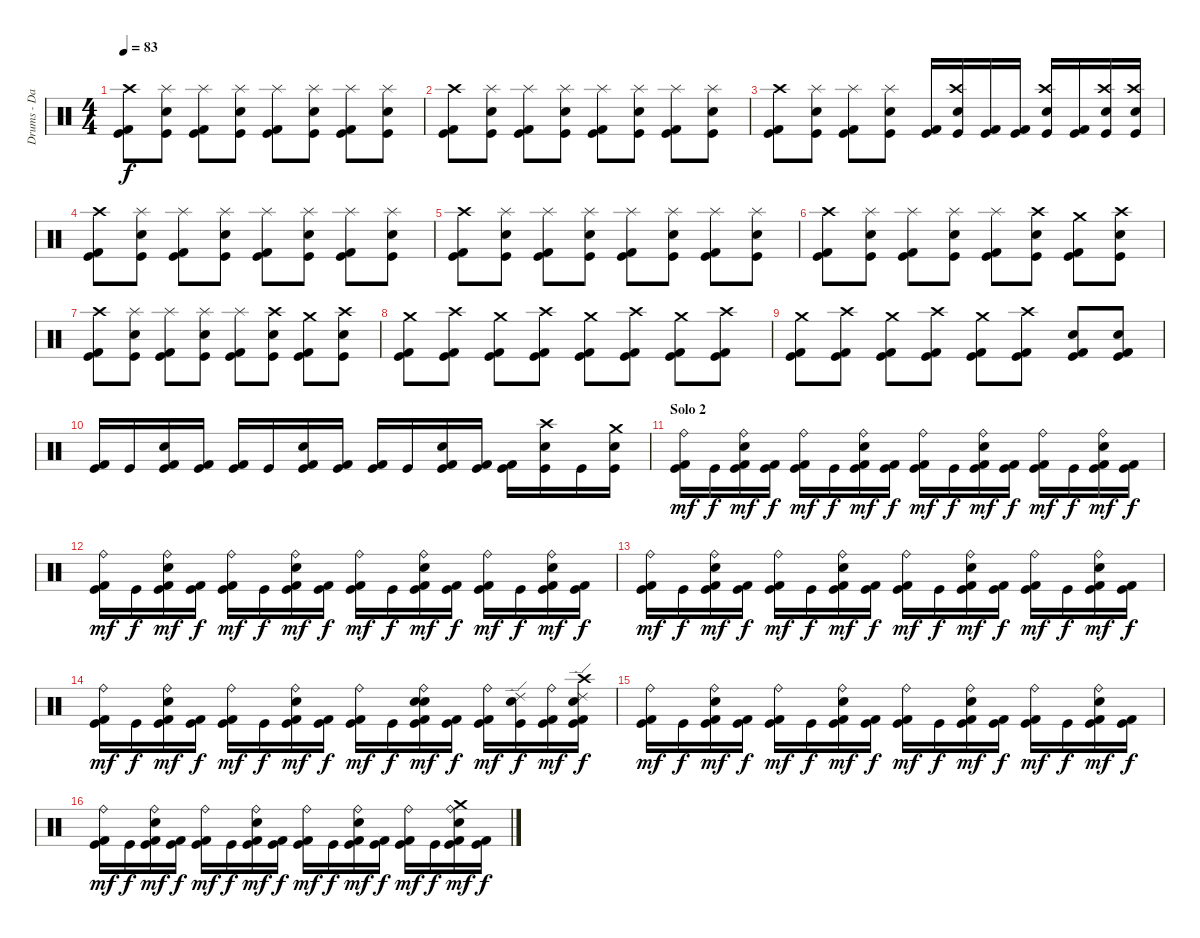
\track ("Drums - Daniel Zimmermann" "Drums - Da") {instrument percussion}
\staff {score}
\articulation defaults
\ts (4 4)
\tempo 83
\clef neutral
\ks c
("Kick (hit)" "Kick (hit) 2" "Crash high (hit)").8{dy f} ("Kick (hit)" "Electric Snare (hit)" "Splash (hit)").8 ("Kick (hit)" "Kick (hit) 2" "Splash (hit)").8 ("Kick (hit)" "Electric Snare (hit)" "Splash (hit)").8 ("Kick (hit)" "Kick (hit) 2" "Splash (hit)").8 ("Kick (hit)" "Electric Snare (hit)" "Splash (hit)").8 ("Kick (hit)" "Kick (hit) 2" "Splash (hit)").8 ("Kick (hit)" "Electric Snare (hit)" "Splash (hit)").8 |
("Kick (hit)" "Kick (hit) 2" "Crash high (hit)").8 ("Kick (hit)" "Electric Snare (hit)" "Splash (hit)").8 ("Kick (hit)" "Kick (hit) 2" "Splash (hit)").8 ("Kick (hit)" "Electric Snare (hit)" "Splash (hit)").8 ("Kick (hit)" "Kick (hit) 2" "Splash (hit)").8 ("Kick (hit)" "Electric Snare (hit)" "Splash (hit)").8 ("Kick (hit)" "Kick (hit) 2" "Splash (hit)").8 ("Kick (hit)" "Electric Snare (hit)" "Splash (hit)").8 |
("Kick (hit)" "Kick (hit) 2" "Crash high (hit)").8 ("Kick (hit)" "Electric Snare (hit)" "Splash (hit)").8 ("Kick (hit)" "Kick (hit) 2" "Splash (hit)").8 ("Kick (hit)" "Electric Snare (hit)" "Splash (hit)").8 ("Kick (hit)" "Kick (hit) 2").16 ("Kick (hit)" "Electric Snare (hit)" "Crash high (hit)").16 ("Kick (hit)" "Kick (hit) 2").16 ("Kick (hit)" "Kick (hit) 2").16 ("Kick (hit)" "Electric Snare (hit)" "Crash high (hit)").16 ("Kick (hit)" "Kick (hit) 2").16 ("Kick (hit)" "Electric Snare (hit)" "Crash high (hit)").16 ("Kick (hit)" "Electric Snare (hit)" "Crash high (hit)").16 |
("Kick (hit)" "Kick (hit) 2" "Crash high (hit)").8 ("Kick (hit)" "Electric Snare (hit)" "Splash (hit)").8 ("Kick (hit)" "Kick (hit) 2" "Splash (hit)").8 ("Kick (hit)" "Electric Snare (hit)" "Splash (hit)").8 ("Kick (hit)" "Kick (hit) 2" "Splash (hit)").8 ("Kick (hit)" "Electric Snare (hit)" "Splash (hit)").8 ("Kick (hit)" "Kick (hit) 2" "Splash (hit)").8 ("Kick (hit)" "Electric Snare (hit)" "Splash (hit)").8 |
("Kick (hit)" "Kick (hit) 2" "Crash high (hit)").8 ("Kick (hit)" "Electric Snare (hit)" "Splash (hit)").8 ("Kick (hit)" "Kick (hit) 2" "Splash (hit)").8 ("Kick (hit)" "Electric Snare (hit)" "Splash (hit)").8 ("Kick (hit)" "Kick (hit) 2" "Splash (hit)").8 ("Kick (hit)" "Electric Snare (hit)" "Splash (hit)").8 ("Kick (hit)" "Kick (hit) 2" "Splash (hit)").8 ("Kick (hit)" "Electric Snare (hit)" "Splash (hit)").8 |
("Kick (hit)" "Kick (hit) 2" "Crash high (hit)").8 ("Kick (hit)" "Electric Snare (hit)" "Splash (hit)").8 ("Kick (hit)" "Kick (hit) 2" "Splash (hit)").8 ("Kick (hit)" "Electric Snare (hit)" "Splash (hit)").8 ("Kick (hit)" "Kick (hit) 2" "Splash (hit)").8 ("Kick (hit)" "Electric Snare (hit)" "Crash high (hit)").8 ("Kick (hit)" "Kick (hit) 2" "Crash medium (hit)").8 ("Kick (hit)" "Electric Snare (hit)" "Crash high (hit)").8 |
("Kick (hit)" "Kick (hit) 2" "Crash high (hit)").8 ("Kick (hit)" "Electric Snare (hit)" "Splash (hit)").8 ("Kick (hit)" "Kick (hit) 2" "Splash (hit)").8 ("Kick (hit)" "Electric Snare (hit)" "Splash (hit)").8 ("Kick (hit)" "Kick (hit) 2" "Splash (hit)").8 ("Kick (hit)" "Electric Snare (hit)" "Crash high (hit)").8 ("Kick (hit)" "Kick (hit) 2" "Crash medium (hit)").8 ("Kick (hit)" "Electric Snare (hit)" "Crash high (hit)").8 |
("Kick (hit)" "Kick (hit) 2" "Crash medium (hit)").8 ("Kick (hit)" "Kick (hit) 2" "Crash high (hit)").8 ("Kick (hit)" "Kick (hit) 2" "Crash medium (hit)").8 ("Kick (hit)" "Kick (hit) 2" "Crash high (hit)").8 ("Kick (hit)" "Kick (hit) 2" "Crash medium (hit)").8 ("Kick (hit)" "Kick (hit) 2" "Crash high (hit)").8 ("Kick (hit)" "Kick (hit) 2" "Crash medium (hit)").8 ("Kick (hit)" "Kick (hit) 2" "Crash high (hit)").8 |
("Kick (hit)" "Kick (hit) 2" "Crash medium (hit)").8 ("Kick (hit)" "Kick (hit) 2" "Crash high (hit)").8 ("Kick (hit)" "Kick (hit) 2" "Crash medium (hit)").8 ("Kick (hit)" "Kick (hit) 2" "Crash high (hit)").8 ("Kick (hit)" "Kick (hit) 2" "Crash medium (hit)").8 ("Kick (hit)" "Kick (hit) 2" "Crash high (hit)").8 ("Kick (hit)" "Kick (hit) 2" "Electric Snare (hit)").8 ("Kick (hit)" "Kick (hit) 2" "Electric Snare (hit)").8 |
("Kick (hit)" "Kick (hit) 2").16 "Kick (hit)".16 ("Kick (hit)" "Kick (hit) 2" "Electric Snare (hit)").16 ("Kick (hit)" "Kick (hit) 2").16 ("Kick (hit)" "Kick (hit) 2").16 "Kick (hit)".16 ("Kick (hit)" "Kick (hit) 2" "Electric Snare (hit)").16 ("Kick (hit)" "Kick (hit) 2").16 ("Kick (hit)" "Kick (hit) 2").16 "Kick (hit)".16 ("Kick (hit)" "Kick (hit) 2" "Electric Snare (hit)").16 ("Kick (hit)" "Kick (hit) 2").16 ("Kick (hit)" "Kick (hit) 2").16 ("Kick (hit)" "Electric Snare (hit)" "Crash high (hit)").16 "Kick (hit)".16 ("Kick (hit)" "Electric Snare (hit)" "Crash medium (hit)").16 |
\section ("" "Solo 2")
("Kick (hit)" "Kick (hit) 2" "Ride (bell)").16{dy mf} "Kick (hit)".16{dy f} ("Kick (hit)" "Kick (hit) 2" "Electric Snare (hit)" "Ride (bell)").16{dy mf} ("Kick (hit)" "Kick (hit) 2").16{dy f} ("Kick (hit)" "Kick (hit) 2" "Ride (bell)").16{dy mf} "Kick (hit)".16{dy f} ("Kick (hit)" "Kick (hit) 2" "Electric Snare (hit)" "Ride (bell)").16{dy mf} ("Kick (hit)" "Kick (hit) 2").16{dy f} ("Kick (hit)" "Kick (hit) 2" "Ride (bell)").16{dy mf} "Kick (hit)".16{dy f} ("Kick (hit)" "Kick (hit) 2" "Electric Snare (hit)" "Ride (bell)").16{dy mf} ("Kick (hit)" "Kick (hit) 2").16{dy f} ("Kick (hit)" "Kick (hit) 2" "Ride (bell)").16{dy mf} "Kick (hit)".16{dy f} ("Kick (hit)" "Kick (hit) 2" "Electric Snare (hit)" "Ride (bell)").16{dy mf} ("Kick (hit)" "Kick (hit) 2").16{dy f} |
("Kick (hit)" "Kick (hit) 2" "Ride (bell)").16{dy mf} "Kick (hit)".16{dy f} ("Kick (hit)" "Kick (hit) 2" "Electric Snare (hit)" "Ride (bell)").16{dy mf} ("Kick (hit)" "Kick (hit) 2").16{dy f} ("Kick (hit)" "Kick (hit) 2" "Ride (bell)").16{dy mf} "Kick (hit)".16{dy f} ("Kick (hit)" "Kick (hit) 2" "Electric Snare (hit)" "Ride (bell)").16{dy mf} ("Kick (hit)" "Kick (hit) 2").16{dy f} ("Kick (hit)" "Kick (hit) 2" "Ride (bell)").16{dy mf} "Kick (hit)".16{dy f} ("Kick (hit)" "Kick (hit) 2" "Electric Snare (hit)" "Ride (bell)").16{dy mf} ("Kick (hit)" "Kick (hit) 2").16{dy f} ("Kick (hit)" "Kick (hit) 2" "Ride (bell)").16{dy mf} "Kick (hit)".16{dy f} ("Kick (hit)" "Kick (hit) 2" "Electric Snare (hit)" "Ride (bell)").16{dy mf} ("Kick (hit)" "Kick (hit) 2").16{dy f} |
("Kick (hit)" "Kick (hit) 2" "Ride (bell)").16{dy mf} "Kick (hit)".16{dy f} ("Kick (hit)" "Kick (hit) 2" "Electric Snare (hit)" "Ride (bell)").16{dy mf} ("Kick (hit)" "Kick (hit) 2").16{dy f} ("Kick (hit)" "Kick (hit) 2" "Ride (bell)").16{dy mf} "Kick (hit)".16{dy f} ("Kick (hit)" "Kick (hit) 2" "Electric Snare (hit)" "Ride (bell)").16{dy mf} ("Kick (hit)" "Kick (hit) 2").16{dy f} ("Kick (hit)" "Kick (hit) 2" "Ride (bell)").16{dy mf} "Kick (hit)".16{dy f} ("Kick (hit)" "Kick (hit) 2" "Electric Snare (hit)" "Ride (bell)").16{dy mf} ("Kick (hit)" "Kick (hit) 2").16{dy f} ("Kick (hit)" "Kick (hit) 2" "Ride (bell)").16{dy mf} "Kick (hit)".16{dy f} ("Kick (hit)" "Kick (hit) 2" "Electric Snare (hit)" "Ride (bell)").16{dy mf} ("Kick (hit)" "Kick (hit) 2").16{dy f} |
("Kick (hit)" "Kick (hit) 2" "Ride (bell)").16{dy mf} "Kick (hit)".16{dy f} ("Kick (hit)" "Kick (hit) 2" "Electric Snare (hit)" "Ride (bell)").16{dy mf} ("Kick (hit)" "Kick (hit) 2").16{dy f} ("Kick (hit)" "Kick (hit) 2" "Ride (bell)").16{dy mf} "Kick (hit)".16{dy f} ("Kick (hit)" "Kick (hit) 2" "Electric Snare (hit)" "Ride (bell)").16{dy mf} ("Kick (hit)" "Kick (hit) 2").16{dy f} ("Kick (hit)" "Kick (hit) 2" "Ride (bell)").16{dy mf} "Kick (hit)".16{dy f} ("Kick (hit)" "Kick (hit) 2" "Electric Snare (hit)" "Snare (hit) 2" "Ride (bell)").16{dy mf} ("Kick (hit)" "Kick (hit) 2").16{dy f} ("Kick (hit)" "Kick (hit) 2" "Ride (bell)").16{dy mf} ("Kick (hit)" "Electric Snare (hit)" "Ride (edge) 2").16{dy f} ("Kick (hit)" "Kick (hit) 2" "Ride (bell)").16{dy mf} ("Kick (hit)" "Kick (hit) 2" "Electric Snare (hit)" "Ride (edge) 2" "Crash high (hit)").16{dy f} |
("Kick (hit)" "Kick (hit) 2" "Ride (bell)").16{dy mf} "Kick (hit)".16{dy f} ("Kick (hit)" "Kick (hit) 2" "Electric Snare (hit)" "Ride (bell)").16{dy mf} ("Kick (hit)" "Kick (hit) 2").16{dy f} ("Kick (hit)" "Kick (hit) 2" "Ride (bell)").16{dy mf} "Kick (hit)".16{dy f} ("Kick (hit)" "Kick (hit) 2" "Electric Snare (hit)" "Ride (bell)").16{dy mf} ("Kick (hit)" "Kick (hit) 2").16{dy f} ("Kick (hit)" "Kick (hit) 2" "Ride (bell)").16{dy mf} "Kick (hit)".16{dy f} ("Kick (hit)" "Kick (hit) 2" "Electric Snare (hit)" "Ride (bell)").16{dy mf} ("Kick (hit)" "Kick (hit) 2").16{dy f} ("Kick (hit)" "Kick (hit) 2" "Ride (bell)").16{dy mf} "Kick (hit)".16{dy f} ("Kick (hit)" "Kick (hit) 2" "Electric Snare (hit)" "Ride (bell)").16{dy mf} ("Kick (hit)" "Kick (hit) 2").16{dy f} |
("Kick (hit)" "Kick (hit) 2" "Ride (bell)").16{dy mf} "Kick (hit)".16{dy f} ("Kick (hit)" "Kick (hit) 2" "Electric Snare (hit)" "Ride (bell)").16{dy mf} ("Kick (hit)" "Kick (hit) 2").16{dy f} ("Kick (hit)" "Kick (hit) 2" "Ride (bell)").16{dy mf} "Kick (hit)".16{dy f} ("Kick (hit)" "Kick (hit) 2" "Electric Snare (hit)" "Ride (bell)").16{dy mf} ("Kick (hit)" "Kick (hit) 2").16{dy f} ("Kick (hit)" "Kick (hit) 2" "Ride (bell)").16{dy mf} "Kick (hit)".16{dy f} ("Kick (hit)" "Kick (hit) 2" "Electric Snare (hit)" "Ride (bell)").16{dy mf} ("Kick (hit)" "Kick (hit) 2").16{dy f} ("Kick (hit)" "Kick (hit) 2" "Ride (bell)").16{dy mf} "Kick (hit)".16{dy f} ("Kick (hit)" "Kick (hit) 2" "Electric Snare (hit)" "Crash medium (hit)" "Ride (bell)").16{dy mf} ("Kick (hit)" "Kick (hit) 2").16{dy f}
